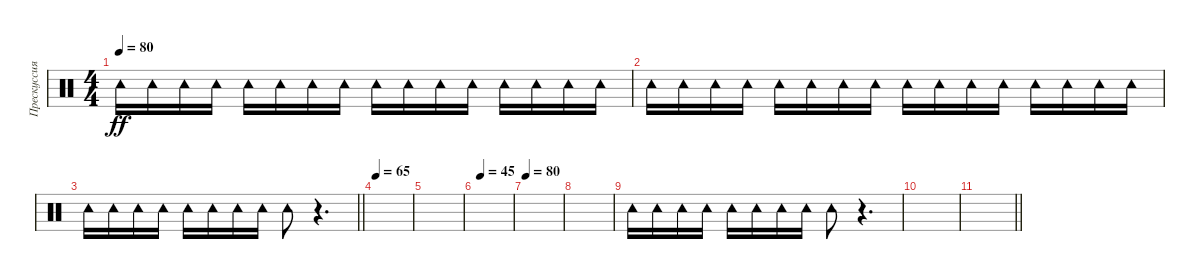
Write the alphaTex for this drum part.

\track ("Прескуссия" "Прескуссия") {instrument percussion}
\staff {score}
\articulation defaults
\ts (4 4)
\tempo 80
\clef neutral
\ks c "Tambourine (hit)".16{dy ff} "Tambourine (hit)".16 "Tambourine (hit)".16 "Tambourine (hit)".16 "Tambourine (hit)".16 "Tambourine (hit)".16 "Tambourine (hit)".16 "Tambourine (hit)".16 "Tambourine (hit)".16 "Tambourine (hit)".16 "Tambourine (hit)".16 "Tambourine (hit)".16 "Tambourine (hit)".16 "Tambourine (hit)".16 "Tambourine (hit)".16 "Tambourine (hit)".16
|
"Tambourine (hit)".16 "Tambourine (hit)".16 "Tambourine (hit)".16 "Tambourine (hit)".16 "Tambourine (hit)".16 "Tambourine (hit)".16 "Tambourine (hit)".16 "Tambourine (hit)".16 "Tambourine (hit)".16 "Tambourine (hit)".16 "Tambourine (hit)".16 "Tambourine (hit)".16 "Tambourine (hit)".16 "Tambourine (hit)".16 "Tambourine (hit)".16 "Tambourine (hit)".16 |
\barLineRight lightlight "Tambourine (hit)".16 "Tambourine (hit)".16 "Tambourine (hit)".16 "Tambourine (hit)".16 "Tambourine (hit)".16 "Tambourine (hit)".16 "Tambourine (hit)".16 "Tambourine (hit)".16 "Tambourine (hit)".8
r.4{d} |
\tempo 65
|
|
\tempo (45 0.125)
|
\tempo 80
|
|
"Tambourine (hit)".16 "Tambourine (hit)".16 "Tambourine (hit)".16 "Tambourine (hit)".16 "Tambourine (hit)".16 "Tambourine (hit)".16 "Tambourine (hit)".16 "Tambourine (hit)".16 "Tambourine (hit)".8 r.4{d} |
|
\barLineRight lightlight
